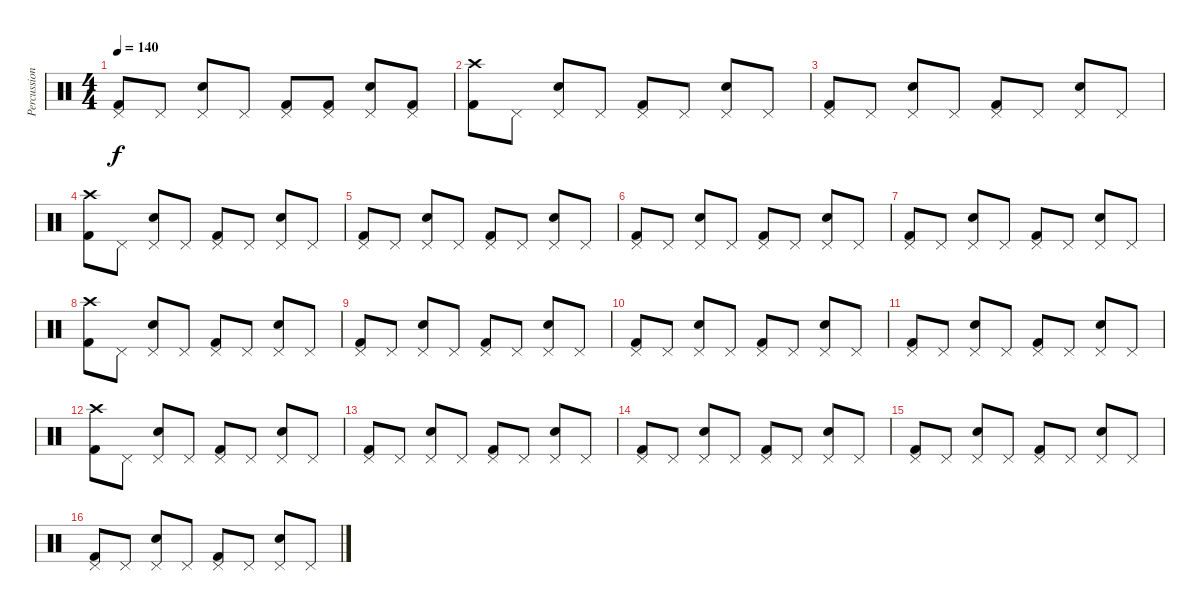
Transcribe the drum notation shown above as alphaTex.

\track ("Percussion" "Percussion") {instrument percussion}
\staff {score}
\articulation defaults
\ts (4 4)
\tempo 140
\clef neutral
\ks c
("Pedal Hi-Hat (hit)" "Kick (hit) 2").8{dy f} "Pedal Hi-Hat (hit)".8 ("Pedal Hi-Hat (hit)" "Snare (hit) 2").8 "Pedal Hi-Hat (hit)".8 ("Pedal Hi-Hat (hit)" "Kick (hit) 2").8 ("Pedal Hi-Hat (hit)" "Kick (hit) 2").8 ("Pedal Hi-Hat (hit)" "Snare (hit) 2").8 ("Pedal Hi-Hat (hit)" "Kick (hit) 2").8 |
("Crash high (hit)" "Kick (hit) 2").8 "Pedal Hi-Hat (hit)".8 ("Pedal Hi-Hat (hit)" "Snare (hit) 2").8 "Pedal Hi-Hat (hit)".8 ("Pedal Hi-Hat (hit)" "Kick (hit) 2").8 "Pedal Hi-Hat (hit)".8 ("Pedal Hi-Hat (hit)" "Snare (hit) 2").8 "Pedal Hi-Hat (hit)".8 |
("Pedal Hi-Hat (hit)" "Kick (hit) 2").8 "Pedal Hi-Hat (hit)".8 ("Pedal Hi-Hat (hit)" "Snare (hit) 2").8 "Pedal Hi-Hat (hit)".8 ("Pedal Hi-Hat (hit)" "Kick (hit) 2").8 "Pedal Hi-Hat (hit)".8 ("Pedal Hi-Hat (hit)" "Snare (hit) 2").8 "Pedal Hi-Hat (hit)".8 |
("Crash high (hit)" "Kick (hit) 2").8 "Pedal Hi-Hat (hit)".8 ("Pedal Hi-Hat (hit)" "Snare (hit) 2").8 "Pedal Hi-Hat (hit)".8 ("Pedal Hi-Hat (hit)" "Kick (hit) 2").8 "Pedal Hi-Hat (hit)".8 ("Pedal Hi-Hat (hit)" "Snare (hit) 2").8 "Pedal Hi-Hat (hit)".8 |
("Pedal Hi-Hat (hit)" "Kick (hit) 2").8 "Pedal Hi-Hat (hit)".8 ("Pedal Hi-Hat (hit)" "Snare (hit) 2").8 "Pedal Hi-Hat (hit)".8 ("Pedal Hi-Hat (hit)" "Kick (hit) 2").8 "Pedal Hi-Hat (hit)".8 ("Pedal Hi-Hat (hit)" "Snare (hit) 2").8 "Pedal Hi-Hat (hit)".8 |
("Pedal Hi-Hat (hit)" "Kick (hit) 2").8 "Pedal Hi-Hat (hit)".8 ("Pedal Hi-Hat (hit)" "Snare (hit) 2").8 "Pedal Hi-Hat (hit)".8 ("Pedal Hi-Hat (hit)" "Kick (hit) 2").8 "Pedal Hi-Hat (hit)".8 ("Pedal Hi-Hat (hit)" "Snare (hit) 2").8 "Pedal Hi-Hat (hit)".8 |
("Pedal Hi-Hat (hit)" "Kick (hit) 2").8 "Pedal Hi-Hat (hit)".8 ("Pedal Hi-Hat (hit)" "Snare (hit) 2").8 "Pedal Hi-Hat (hit)".8 ("Pedal Hi-Hat (hit)" "Kick (hit) 2").8 "Pedal Hi-Hat (hit)".8 ("Pedal Hi-Hat (hit)" "Snare (hit) 2").8 "Pedal Hi-Hat (hit)".8 |
("Crash high (hit)" "Kick (hit) 2").8 "Pedal Hi-Hat (hit)".8 ("Pedal Hi-Hat (hit)" "Snare (hit) 2").8 "Pedal Hi-Hat (hit)".8 ("Pedal Hi-Hat (hit)" "Kick (hit) 2").8 "Pedal Hi-Hat (hit)".8 ("Pedal Hi-Hat (hit)" "Snare (hit) 2").8 "Pedal Hi-Hat (hit)".8 |
("Pedal Hi-Hat (hit)" "Kick (hit) 2").8 "Pedal Hi-Hat (hit)".8 ("Pedal Hi-Hat (hit)" "Snare (hit) 2").8 "Pedal Hi-Hat (hit)".8 ("Pedal Hi-Hat (hit)" "Kick (hit) 2").8 "Pedal Hi-Hat (hit)".8 ("Pedal Hi-Hat (hit)" "Snare (hit) 2").8 "Pedal Hi-Hat (hit)".8 |
("Pedal Hi-Hat (hit)" "Kick (hit) 2").8 "Pedal Hi-Hat (hit)".8 ("Pedal Hi-Hat (hit)" "Snare (hit) 2").8 "Pedal Hi-Hat (hit)".8 ("Pedal Hi-Hat (hit)" "Kick (hit) 2").8 "Pedal Hi-Hat (hit)".8 ("Pedal Hi-Hat (hit)" "Snare (hit) 2").8 "Pedal Hi-Hat (hit)".8 |
("Pedal Hi-Hat (hit)" "Kick (hit) 2").8 "Pedal Hi-Hat (hit)".8 ("Pedal Hi-Hat (hit)" "Snare (hit) 2").8 "Pedal Hi-Hat (hit)".8 ("Pedal Hi-Hat (hit)" "Kick (hit) 2").8 "Pedal Hi-Hat (hit)".8 ("Pedal Hi-Hat (hit)" "Snare (hit) 2").8 "Pedal Hi-Hat (hit)".8 |
("Crash high (hit)" "Kick (hit) 2").8 "Pedal Hi-Hat (hit)".8 ("Pedal Hi-Hat (hit)" "Snare (hit) 2").8 "Pedal Hi-Hat (hit)".8 ("Pedal Hi-Hat (hit)" "Kick (hit) 2").8 "Pedal Hi-Hat (hit)".8 ("Pedal Hi-Hat (hit)" "Snare (hit) 2").8 "Pedal Hi-Hat (hit)".8 |
("Pedal Hi-Hat (hit)" "Kick (hit) 2").8 "Pedal Hi-Hat (hit)".8 ("Pedal Hi-Hat (hit)" "Snare (hit) 2").8 "Pedal Hi-Hat (hit)".8 ("Pedal Hi-Hat (hit)" "Kick (hit) 2").8 "Pedal Hi-Hat (hit)".8 ("Pedal Hi-Hat (hit)" "Snare (hit) 2").8 "Pedal Hi-Hat (hit)".8 |
("Pedal Hi-Hat (hit)" "Kick (hit) 2").8 "Pedal Hi-Hat (hit)".8 ("Pedal Hi-Hat (hit)" "Snare (hit) 2").8 "Pedal Hi-Hat (hit)".8 ("Pedal Hi-Hat (hit)" "Kick (hit) 2").8 "Pedal Hi-Hat (hit)".8 ("Pedal Hi-Hat (hit)" "Snare (hit) 2").8 "Pedal Hi-Hat (hit)".8 |
("Pedal Hi-Hat (hit)" "Kick (hit) 2").8 "Pedal Hi-Hat (hit)".8 ("Pedal Hi-Hat (hit)" "Snare (hit) 2").8 "Pedal Hi-Hat (hit)".8 ("Pedal Hi-Hat (hit)" "Kick (hit) 2").8 "Pedal Hi-Hat (hit)".8 ("Pedal Hi-Hat (hit)" "Snare (hit) 2").8 "Pedal Hi-Hat (hit)".8 |
("Pedal Hi-Hat (hit)" "Kick (hit) 2").8 "Pedal Hi-Hat (hit)".8 ("Pedal Hi-Hat (hit)" "Snare (hit) 2").8 "Pedal Hi-Hat (hit)".8 ("Pedal Hi-Hat (hit)" "Kick (hit) 2").8 "Pedal Hi-Hat (hit)".8 ("Pedal Hi-Hat (hit)" "Snare (hit) 2").8 "Pedal Hi-Hat (hit)".8
